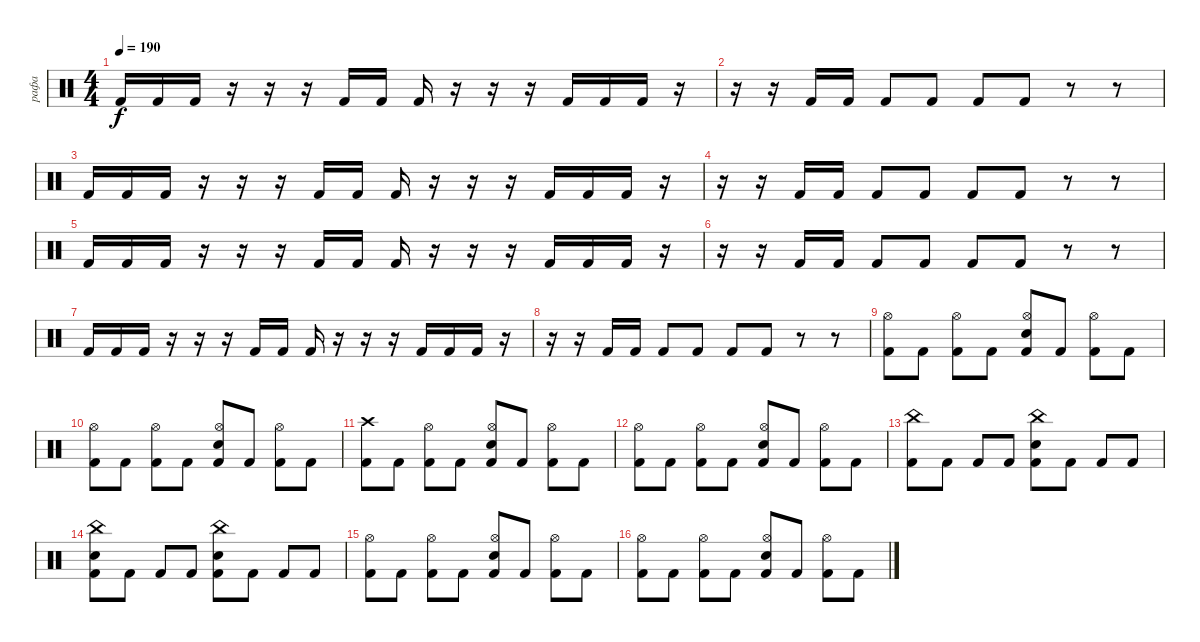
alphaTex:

\track ("рафа" "рафа") {instrument percussion}
\staff {score}
\articulation defaults
\ts (4 4)
\tempo 190
\clef neutral
\ks c "Kick (hit) 2".16{dy f} "Kick (hit) 2".16 "Kick (hit) 2".16
r.16 r.16 r.16 "Kick (hit) 2".16 "Kick (hit) 2".16 "Kick (hit) 2".16 r.16 r.16 r.16 "Kick (hit) 2".16 "Kick (hit) 2".16 "Kick (hit) 2".16 r.16 |
r.16 r.16 "Kick (hit) 2".16 "Kick (hit) 2".16 "Kick (hit) 2".8 "Kick (hit) 2".8 "Kick (hit) 2".8 "Kick (hit) 2".8 r.8 r.8 |
"Kick (hit) 2".16 "Kick (hit) 2".16 "Kick (hit) 2".16 r.16 r.16 r.16 "Kick (hit) 2".16 "Kick (hit) 2".16 "Kick (hit) 2".16 r.16 r.16 r.16 "Kick (hit) 2".16 "Kick (hit) 2".16 "Kick (hit) 2".16 r.16 |
r.16 r.16 "Kick (hit) 2".16 "Kick (hit) 2".16 "Kick (hit) 2".8 "Kick (hit) 2".8 "Kick (hit) 2".8 "Kick (hit) 2".8 r.8 r.8 |
"Kick (hit) 2".16 "Kick (hit) 2".16 "Kick (hit) 2".16 r.16 r.16 r.16 "Kick (hit) 2".16 "Kick (hit) 2".16 "Kick (hit) 2".16 r.16 r.16 r.16 "Kick (hit) 2".16 "Kick (hit) 2".16 "Kick (hit) 2".16 r.16 |
r.16 r.16 "Kick (hit) 2".16 "Kick (hit) 2".16 "Kick (hit) 2".8 "Kick (hit) 2".8 "Kick (hit) 2".8 "Kick (hit) 2".8 r.8 r.8 |
"Kick (hit) 2".16 "Kick (hit) 2".16 "Kick (hit) 2".16 r.16 r.16 r.16 "Kick (hit) 2".16 "Kick (hit) 2".16 "Kick (hit) 2".16 r.16 r.16 r.16 "Kick (hit) 2".16 "Kick (hit) 2".16 "Kick (hit) 2".16 r.16 |
r.16 r.16 "Kick (hit) 2".16 "Kick (hit) 2".16 "Kick (hit) 2".8 "Kick (hit) 2".8 "Kick (hit) 2".8 "Kick (hit) 2".8 r.8 r.8 |
("Kick (hit) 2" "Hi-Hat (open)").8 "Kick (hit) 2".8 ("Kick (hit) 2" "Hi-Hat (open)").8 "Kick (hit) 2".8 ("Kick (hit) 2" "Snare (hit) 2" "Hi-Hat (open)").8 "Kick (hit) 2".8 ("Kick (hit) 2" "Hi-Hat (open)").8 "Kick (hit) 2".8 |
("Kick (hit) 2" "Hi-Hat (open)").8 "Kick (hit) 2".8 ("Kick (hit) 2" "Hi-Hat (open)").8 "Kick (hit) 2".8 ("Kick (hit) 2" "Snare (hit) 2" "Hi-Hat (open)").8 "Kick (hit) 2".8 ("Kick (hit) 2" "Hi-Hat (open)").8 "Kick (hit) 2".8 |
("Kick (hit) 2" "Crash high (hit)").8 "Kick (hit) 2".8 ("Kick (hit) 2" "Hi-Hat (open)").8 "Kick (hit) 2".8 ("Kick (hit) 2" "Snare (hit) 2" "Hi-Hat (open)").8 "Kick (hit) 2".8 ("Kick (hit) 2" "Hi-Hat (open)").8 "Kick (hit) 2".8 |
("Kick (hit) 2" "Hi-Hat (open)").8 "Kick (hit) 2".8 ("Kick (hit) 2" "Hi-Hat (open)").8 "Kick (hit) 2".8 ("Kick (hit) 2" "Snare (hit) 2" "Hi-Hat (open)").8 "Kick (hit) 2".8 ("Kick (hit) 2" "Hi-Hat (open)").8 "Kick (hit) 2".8 |
("Kick (hit) 2" "China (hit)").8 "Kick (hit) 2".8 "Kick (hit) 2".8 "Kick (hit) 2".8 ("Kick (hit) 2" "Snare (hit) 2" "China (hit)").8 "Kick (hit) 2".8 "Kick (hit) 2".8 "Kick (hit) 2".8 |
("Kick (hit) 2" "Snare (hit) 2" "China (hit)").8 "Kick (hit) 2".8 "Kick (hit) 2".8 "Kick (hit) 2".8 ("Kick (hit) 2" "Snare (hit) 2" "China (hit)").8 "Kick (hit) 2".8 "Kick (hit) 2".8 "Kick (hit) 2".8 |
("Kick (hit) 2" "Hi-Hat (open)").8 "Kick (hit) 2".8 ("Kick (hit) 2" "Hi-Hat (open)").8 "Kick (hit) 2".8 ("Kick (hit) 2" "Snare (hit) 2" "Hi-Hat (open)").8 "Kick (hit) 2".8 ("Kick (hit) 2" "Hi-Hat (open)").8 "Kick (hit) 2".8 |
("Kick (hit) 2" "Hi-Hat (open)").8 "Kick (hit) 2".8 ("Kick (hit) 2" "Hi-Hat (open)").8 "Kick (hit) 2".8 ("Kick (hit) 2" "Snare (hit) 2" "Hi-Hat (open)").8 "Kick (hit) 2".8 ("Kick (hit) 2" "Hi-Hat (open)").8 "Kick (hit) 2".8
